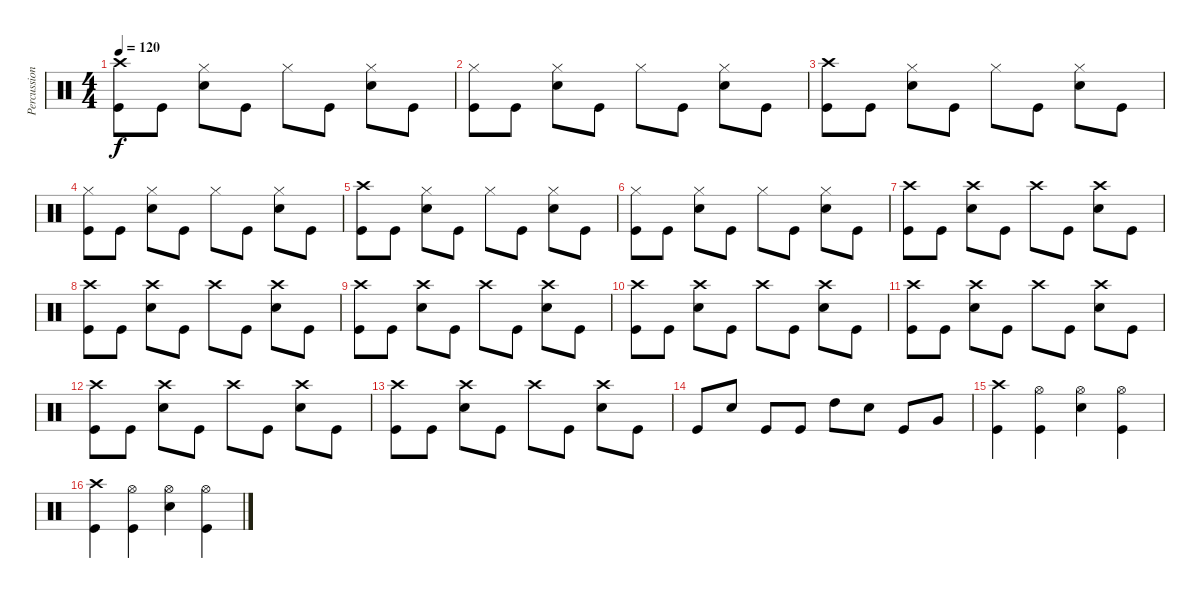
\track ("Percussion" "Percussion") {instrument percussion}
\staff {score}
\articulation defaults
\ts (4 4)
\tempo 120
\clef neutral
\ks c
("Crash high (hit)" "Kick (hit)").8{dy f} "Kick (hit)".8 ("Hi-Hat (closed)" "Snare (hit) 2").8 "Kick (hit)".8 "Hi-Hat (closed)".8 "Kick (hit)".8 ("Hi-Hat (closed)" "Snare (hit) 2").8 "Kick (hit)".8 |
("Hi-Hat (closed)" "Kick (hit)").8 "Kick (hit)".8 ("Hi-Hat (closed)" "Snare (hit) 2").8 "Kick (hit)".8 "Hi-Hat (closed)".8 "Kick (hit)".8 ("Hi-Hat (closed)" "Snare (hit) 2").8 "Kick (hit)".8 |
("Crash high (hit)" "Kick (hit)").8 "Kick (hit)".8 ("Hi-Hat (closed)" "Snare (hit) 2").8 "Kick (hit)".8 "Hi-Hat (closed)".8 "Kick (hit)".8 ("Hi-Hat (closed)" "Snare (hit) 2").8 "Kick (hit)".8 |
("Hi-Hat (closed)" "Kick (hit)").8 "Kick (hit)".8 ("Hi-Hat (closed)" "Snare (hit) 2").8 "Kick (hit)".8 "Hi-Hat (closed)".8 "Kick (hit)".8 ("Hi-Hat (closed)" "Snare (hit) 2").8 "Kick (hit)".8 |
("Crash high (hit)" "Kick (hit)").8 "Kick (hit)".8 ("Hi-Hat (closed)" "Snare (hit) 2").8 "Kick (hit)".8 "Hi-Hat (closed)".8 "Kick (hit)".8 ("Hi-Hat (closed)" "Snare (hit) 2").8 "Kick (hit)".8 |
("Hi-Hat (closed)" "Kick (hit)").8 "Kick (hit)".8 ("Hi-Hat (closed)" "Snare (hit) 2").8 "Kick (hit)".8 "Hi-Hat (closed)".8 "Kick (hit)".8 ("Hi-Hat (closed)" "Snare (hit) 2").8 "Kick (hit)".8 |
("Crash high (hit)" "Kick (hit)").8 "Kick (hit)".8 ("Crash high (hit)" "Snare (hit) 2").8 "Kick (hit)".8 "Crash high (hit)".8 "Kick (hit)".8 ("Crash high (hit)" "Snare (hit) 2").8 "Kick (hit)".8 |
("Crash high (hit)" "Kick (hit)").8 "Kick (hit)".8 ("Crash high (hit)" "Snare (hit) 2").8 "Kick (hit)".8 "Crash high (hit)".8 "Kick (hit)".8 ("Crash high (hit)" "Snare (hit) 2").8 "Kick (hit)".8 |
("Crash high (hit)" "Kick (hit)").8 "Kick (hit)".8 ("Crash high (hit)" "Snare (hit) 2").8 "Kick (hit)".8 "Crash high (hit)".8 "Kick (hit)".8 ("Crash high (hit)" "Snare (hit) 2").8 "Kick (hit)".8 |
("Crash high (hit)" "Kick (hit)").8 "Kick (hit)".8 ("Crash high (hit)" "Snare (hit) 2").8 "Kick (hit)".8 "Crash high (hit)".8 "Kick (hit)".8 ("Crash high (hit)" "Snare (hit) 2").8 "Kick (hit)".8 |
("Crash high (hit)" "Kick (hit)").8 "Kick (hit)".8 ("Crash high (hit)" "Snare (hit) 2").8 "Kick (hit)".8 "Crash high (hit)".8 "Kick (hit)".8 ("Crash high (hit)" "Snare (hit) 2").8 "Kick (hit)".8 |
("Crash high (hit)" "Kick (hit)").8 "Kick (hit)".8 ("Crash high (hit)" "Snare (hit) 2").8 "Kick (hit)".8 "Crash high (hit)".8 "Kick (hit)".8 ("Crash high (hit)" "Snare (hit) 2").8 "Kick (hit)".8 |
("Crash high (hit)" "Kick (hit)").8 "Kick (hit)".8 ("Crash high (hit)" "Snare (hit) 2").8 "Kick (hit)".8 "Crash high (hit)".8 "Kick (hit)".8 ("Crash high (hit)" "Snare (hit) 2").8 "Kick (hit)".8 |
"Kick (hit)".8 "Snare (hit) 2".8 "Kick (hit)".8 "Kick (hit)".8 "High Tom (hit)".8 "Snare (hit) 2".8 "Kick (hit)".8 "Very Low Tom (hit)".8 |
("Crash high (hit)" "Kick (hit)").4 ("Hi-Hat (open)" "Kick (hit)").4 ("Hi-Hat (open)" "Snare (hit) 2").4 ("Hi-Hat (open)" "Kick (hit)").4 |
("Crash high (hit)" "Kick (hit)").4 ("Hi-Hat (open)" "Kick (hit)").4 ("Hi-Hat (open)" "Snare (hit) 2").4 ("Hi-Hat (open)" "Kick (hit)").4
